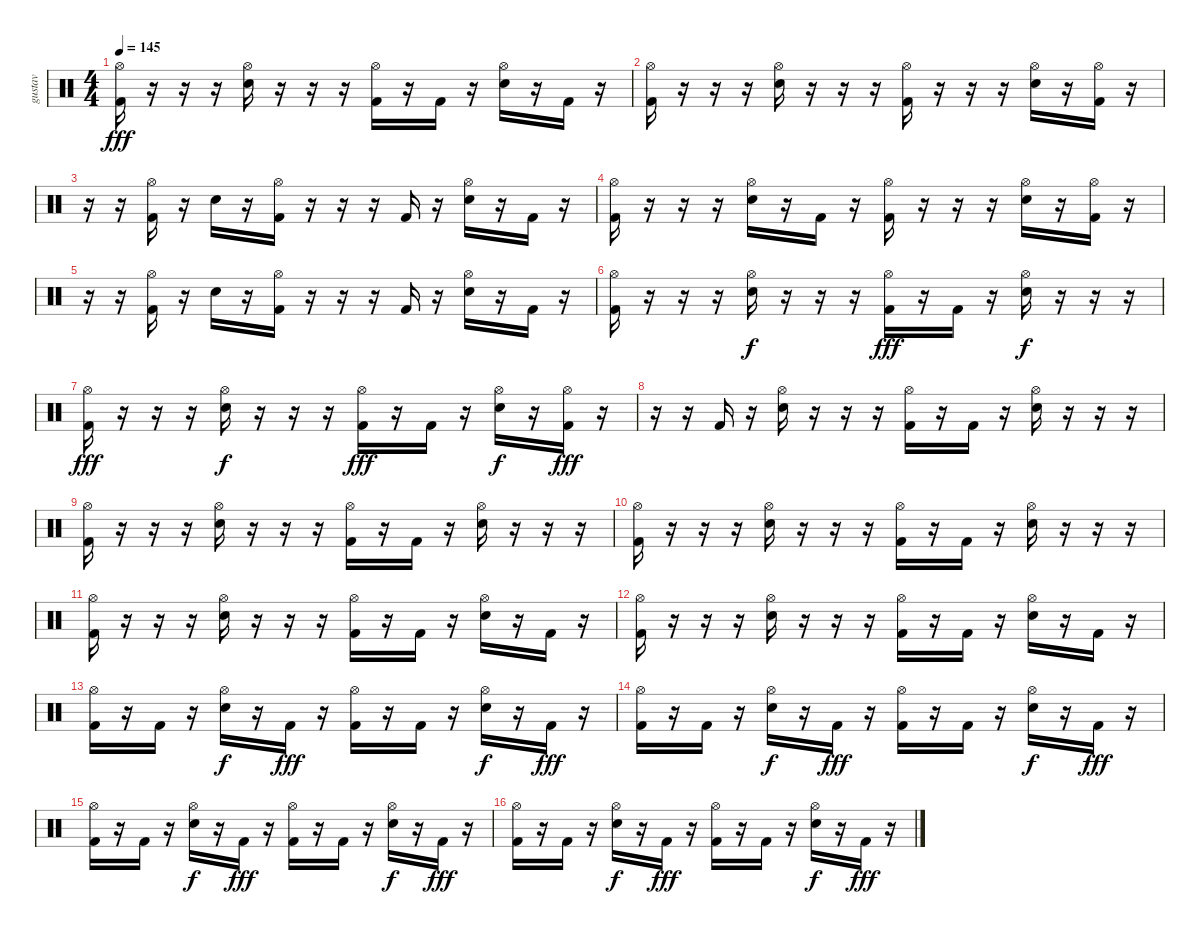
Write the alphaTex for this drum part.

\track ("gustav" "gustav") {instrument percussion}
\staff {score}
\articulation defaults
\ts (4 4)
\tempo 145
\clef neutral
\ks c
("Hi-Hat (open)" "Kick (hit) 2").16{dy fff} r.16 r.16 r.16 ("Hi-Hat (open)" "Electric Snare (hit)").16 r.16 r.16 r.16 ("Hi-Hat (open)" "Kick (hit) 2").16 r.16 "Kick (hit) 2".16 r.16 ("Hi-Hat (open)" "Electric Snare (hit)").16 r.16 "Kick (hit) 2".16 r.16 |
("Hi-Hat (open)" "Kick (hit) 2").16 r.16 r.16 r.16 ("Hi-Hat (open)" "Electric Snare (hit)").16 r.16 r.16 r.16 ("Hi-Hat (open)" "Kick (hit) 2").16 r.16 r.16 r.16 ("Hi-Hat (open)" "Electric Snare (hit)").16 r.16 ("Hi-Hat (open)" "Kick (hit) 2").16 r.16 |
r.16 r.16 ("Hi-Hat (open)" "Kick (hit) 2").16 r.16 "Electric Snare (hit)".16 r.16 ("Hi-Hat (open)" "Kick (hit) 2").16 r.16 r.16 r.16 "Kick (hit) 2".16 r.16 ("Hi-Hat (open)" "Electric Snare (hit)").16 r.16 "Kick (hit) 2".16 r.16 |
("Hi-Hat (open)" "Kick (hit) 2").16 r.16 r.16 r.16 ("Hi-Hat (open)" "Electric Snare (hit)").16 r.16 "Kick (hit) 2".16 r.16 ("Hi-Hat (open)" "Kick (hit) 2").16 r.16 r.16 r.16 ("Hi-Hat (open)" "Electric Snare (hit)").16 r.16 ("Hi-Hat (open)" "Kick (hit) 2").16 r.16 |
r.16 r.16 ("Hi-Hat (open)" "Kick (hit) 2").16 r.16 "Electric Snare (hit)".16 r.16 ("Hi-Hat (open)" "Kick (hit) 2").16 r.16 r.16 r.16 "Kick (hit) 2".16 r.16 ("Hi-Hat (open)" "Electric Snare (hit)").16 r.16 "Kick (hit) 2".16 r.16 |
("Hi-Hat (open)" "Kick (hit) 2").16 r.16 r.16 r.16 ("Hi-Hat (open)" "Electric Snare (hit)").16{dy f} r.16 r.16 r.16 ("Hi-Hat (open)" "Kick (hit) 2").16{dy fff} r.16 "Kick (hit) 2".16 r.16 ("Hi-Hat (open)" "Electric Snare (hit)").16{dy f} r.16 r.16 r.16 |
("Hi-Hat (open)" "Kick (hit) 2").16{dy fff} r.16 r.16 r.16 ("Hi-Hat (open)" "Electric Snare (hit)").16{dy f} r.16 r.16 r.16 ("Hi-Hat (open)" "Kick (hit) 2").16{dy fff} r.16 "Kick (hit) 2".16 r.16 ("Hi-Hat (open)" "Electric Snare (hit)").16{dy f} r.16 ("Hi-Hat (open)" "Kick (hit) 2").16{dy fff} r.16 |
r.16 r.16 "Kick (hit) 2".16 r.16 ("Hi-Hat (open)" "Electric Snare (hit)").16 r.16 r.16 r.16 ("Hi-Hat (open)" "Kick (hit) 2").16 r.16 "Kick (hit) 2".16 r.16 ("Hi-Hat (open)" "Electric Snare (hit)").16 r.16 r.16 r.16 |
("Hi-Hat (open)" "Kick (hit) 2").16 r.16 r.16 r.16 ("Hi-Hat (open)" "Electric Snare (hit)").16 r.16 r.16 r.16 ("Hi-Hat (open)" "Kick (hit) 2").16 r.16 "Kick (hit) 2".16 r.16 ("Hi-Hat (open)" "Electric Snare (hit)").16 r.16 r.16 r.16 |
("Hi-Hat (open)" "Kick (hit) 2").16 r.16 r.16 r.16 ("Hi-Hat (open)" "Electric Snare (hit)").16 r.16 r.16 r.16 ("Hi-Hat (open)" "Kick (hit) 2").16 r.16 "Kick (hit) 2".16 r.16 ("Hi-Hat (open)" "Electric Snare (hit)").16 r.16 r.16 r.16 |
("Hi-Hat (open)" "Kick (hit) 2").16 r.16 r.16 r.16 ("Hi-Hat (open)" "Electric Snare (hit)").16 r.16 r.16 r.16 ("Hi-Hat (open)" "Kick (hit) 2").16 r.16 "Kick (hit) 2".16 r.16 ("Hi-Hat (open)" "Electric Snare (hit)").16 r.16 "Kick (hit) 2".16 r.16 |
("Hi-Hat (open)" "Kick (hit) 2").16 r.16 r.16 r.16 ("Hi-Hat (open)" "Electric Snare (hit)").16 r.16 r.16 r.16 ("Hi-Hat (open)" "Kick (hit) 2").16 r.16 "Kick (hit) 2".16 r.16 ("Hi-Hat (open)" "Electric Snare (hit)").16 r.16 "Kick (hit) 2".16 r.16 |
("Hi-Hat (open)" "Kick (hit) 2").16 r.16 "Kick (hit) 2".16 r.16 ("Hi-Hat (open)" "Electric Snare (hit)").16{dy f} r.16 "Kick (hit) 2".16{dy fff} r.16 ("Hi-Hat (open)" "Kick (hit) 2").16 r.16 "Kick (hit) 2".16 r.16 ("Hi-Hat (open)" "Electric Snare (hit)").16{dy f} r.16 "Kick (hit) 2".16{dy fff} r.16 |
("Hi-Hat (open)" "Kick (hit) 2").16 r.16 "Kick (hit) 2".16 r.16 ("Hi-Hat (open)" "Electric Snare (hit)").16{dy f} r.16 "Kick (hit) 2".16{dy fff} r.16 ("Hi-Hat (open)" "Kick (hit) 2").16 r.16 "Kick (hit) 2".16 r.16 ("Hi-Hat (open)" "Electric Snare (hit)").16{dy f} r.16 "Kick (hit) 2".16{dy fff} r.16 |
("Hi-Hat (open)" "Kick (hit) 2").16 r.16 "Kick (hit) 2".16 r.16 ("Hi-Hat (open)" "Electric Snare (hit)").16{dy f} r.16 "Kick (hit) 2".16{dy fff} r.16 ("Hi-Hat (open)" "Kick (hit) 2").16 r.16 "Kick (hit) 2".16 r.16 ("Hi-Hat (open)" "Electric Snare (hit)").16{dy f} r.16 "Kick (hit) 2".16{dy fff} r.16 |
("Hi-Hat (open)" "Kick (hit) 2").16 r.16 "Kick (hit) 2".16 r.16 ("Hi-Hat (open)" "Electric Snare (hit)").16{dy f} r.16 "Kick (hit) 2".16{dy fff} r.16 ("Hi-Hat (open)" "Kick (hit) 2").16 r.16 "Kick (hit) 2".16 r.16 ("Hi-Hat (open)" "Electric Snare (hit)").16{dy f} r.16 "Kick (hit) 2".16{dy fff} r.16
